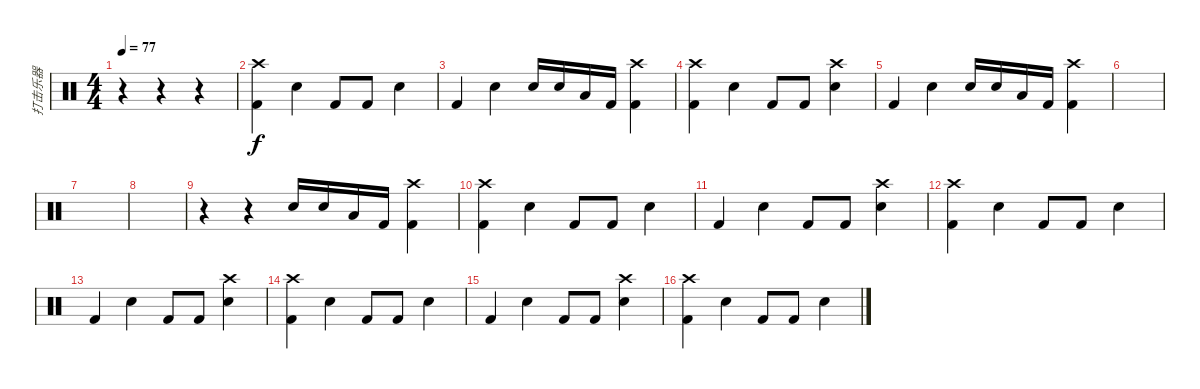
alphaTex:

\track ("打击乐器" "打击乐器") {instrument percussion}
\staff {score}
\articulation defaults
\ts (4 4)
\tempo 77
\clef neutral
\ks c
r.4{dy f} r.4 r.4 |
("Kick (hit) 2" "Crash high (hit)").4 "Snare (hit) 2".4 "Kick (hit) 2".8 "Kick (hit) 2".8 "Snare (hit) 2".4 |
"Kick (hit) 2".4 "Snare (hit) 2".4 "Snare (hit) 2".16 "Electric Snare (hit)".16 "Low Floor Tom (hit)".16 "Kick (hit) 2".16 ("Kick (hit) 2" "Crash high (hit)").4 |
("Kick (hit) 2" "Crash high (hit)").4 "Snare (hit) 2".4 "Kick (hit) 2".8 "Kick (hit) 2".8 ("Snare (hit) 2" "Crash high (hit)").4 |
"Kick (hit) 2".4 "Snare (hit) 2".4 "Snare (hit) 2".16 "Electric Snare (hit)".16 "Low Floor Tom (hit)".16 "Kick (hit) 2".16 ("Kick (hit) 2" "Crash high (hit)").4 |
|
|
|
r.4 r.4 "Snare (hit) 2".16 "Electric Snare (hit)".16 "Low Floor Tom (hit)".16 "Kick (hit) 2".16 ("Kick (hit) 2" "Crash high (hit)").4 |
("Kick (hit) 2" "Crash high (hit)").4 "Snare (hit) 2".4 "Kick (hit) 2".8 "Kick (hit) 2".8 "Snare (hit) 2".4 |
"Kick (hit) 2".4 "Snare (hit) 2".4 "Kick (hit) 2".8 "Kick (hit) 2".8 ("Snare (hit) 2" "Crash high (hit)").4 |
("Kick (hit) 2" "Crash high (hit)").4 "Snare (hit) 2".4 "Kick (hit) 2".8 "Kick (hit) 2".8 "Snare (hit) 2".4 |
"Kick (hit) 2".4 "Snare (hit) 2".4 "Kick (hit) 2".8 "Kick (hit) 2".8 ("Snare (hit) 2" "Crash high (hit)").4 |
("Kick (hit) 2" "Crash high (hit)").4 "Snare (hit) 2".4 "Kick (hit) 2".8 "Kick (hit) 2".8 "Snare (hit) 2".4 |
"Kick (hit) 2".4 "Snare (hit) 2".4 "Kick (hit) 2".8 "Kick (hit) 2".8 ("Snare (hit) 2" "Crash high (hit)").4 |
("Kick (hit) 2" "Crash high (hit)").4 "Snare (hit) 2".4 "Kick (hit) 2".8 "Kick (hit) 2".8 "Snare (hit) 2".4
